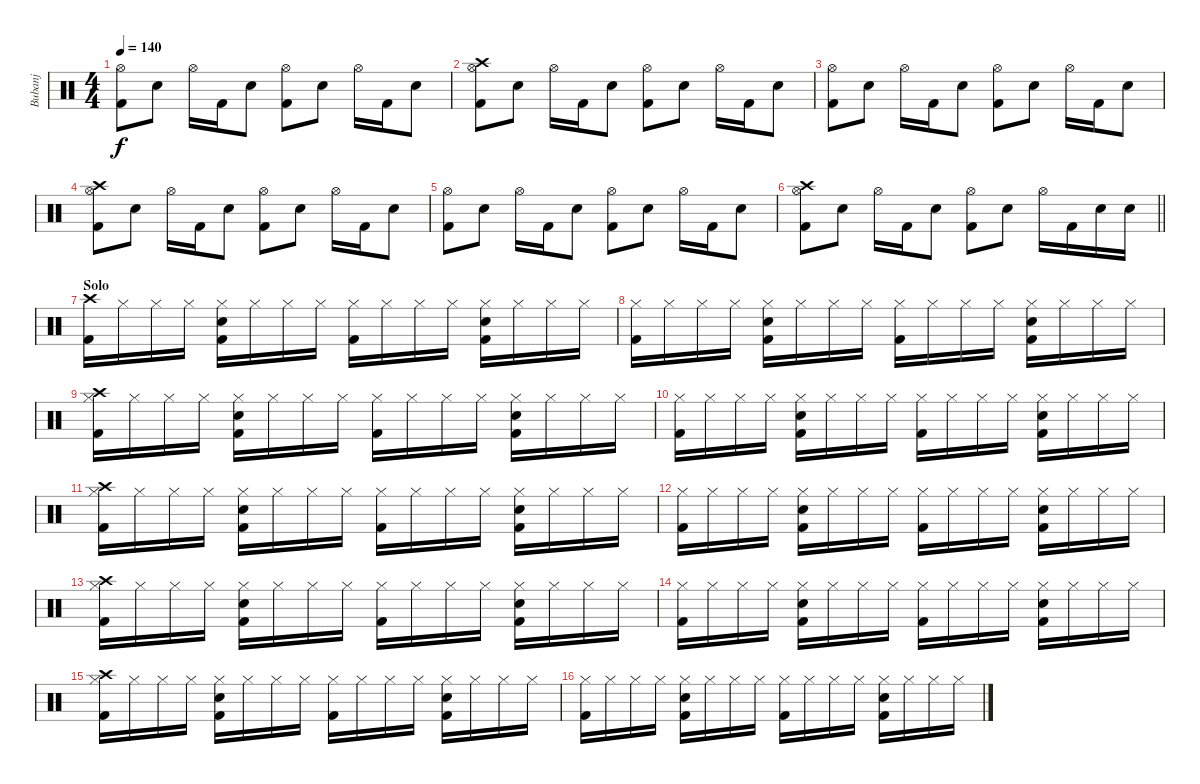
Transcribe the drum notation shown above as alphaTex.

\track ("Bubanj" "Bubanj") {instrument percussion}
\staff {score}
\articulation defaults
\ts (4 4)
\tempo 140
\clef neutral
\ks c
("Kick (hit) 2" "Hi-Hat (open)").8{dy f} "Snare (hit) 2".8 "Hi-Hat (open)".16 "Kick (hit) 2".16 "Snare (hit) 2".8 ("Kick (hit) 2" "Hi-Hat (open)").8 "Snare (hit) 2".8 "Hi-Hat (open)".16 "Kick (hit) 2".16 "Snare (hit) 2".8 |
("Kick (hit) 2" "Hi-Hat (open)" "Crash high (hit)").8 "Snare (hit) 2".8 "Hi-Hat (open)".16 "Kick (hit) 2".16 "Snare (hit) 2".8 ("Kick (hit) 2" "Hi-Hat (open)").8 "Snare (hit) 2".8 "Hi-Hat (open)".16 "Kick (hit) 2".16 "Snare (hit) 2".8 |
("Kick (hit) 2" "Hi-Hat (open)").8 "Snare (hit) 2".8 "Hi-Hat (open)".16 "Kick (hit) 2".16 "Snare (hit) 2".8 ("Kick (hit) 2" "Hi-Hat (open)").8 "Snare (hit) 2".8 "Hi-Hat (open)".16 "Kick (hit) 2".16 "Snare (hit) 2".8 |
("Kick (hit) 2" "Hi-Hat (open)" "Crash high (hit)").8 "Snare (hit) 2".8 "Hi-Hat (open)".16 "Kick (hit) 2".16 "Snare (hit) 2".8 ("Kick (hit) 2" "Hi-Hat (open)").8 "Snare (hit) 2".8 "Hi-Hat (open)".16 "Kick (hit) 2".16 "Snare (hit) 2".8 |
("Kick (hit) 2" "Hi-Hat (open)").8 "Snare (hit) 2".8 "Hi-Hat (open)".16 "Kick (hit) 2".16 "Snare (hit) 2".8 ("Kick (hit) 2" "Hi-Hat (open)").8 "Snare (hit) 2".8 "Hi-Hat (open)".16 "Kick (hit) 2".16 "Snare (hit) 2".8 |
\barLineRight lightlight
("Kick (hit) 2" "Hi-Hat (open)" "Crash high (hit)").8 "Snare (hit) 2".8 "Hi-Hat (open)".16 "Kick (hit) 2".16 "Snare (hit) 2".8 ("Kick (hit) 2" "Hi-Hat (open)").8 "Snare (hit) 2".8 "Hi-Hat (open)".16 "Kick (hit) 2".16 "Snare (hit) 2".16 "Snare (hit) 2".16 |
\section ("" "Solo")
("Kick (hit) 2" "Crash high (hit)").16 "Hi-Hat (closed)".16 "Hi-Hat (closed)".16 "Hi-Hat (closed)".16 ("Kick (hit) 2" "Snare (hit) 2" "Hi-Hat (closed)").16 "Hi-Hat (closed)".16 "Hi-Hat (closed)".16 "Hi-Hat (closed)".16 ("Kick (hit) 2" "Hi-Hat (closed)").16 "Hi-Hat (closed)".16 "Hi-Hat (closed)".16 "Hi-Hat (closed)".16 ("Kick (hit) 2" "Snare (hit) 2" "Hi-Hat (closed)").16 "Hi-Hat (closed)".16 "Hi-Hat (closed)".16 "Hi-Hat (closed)".16 |
("Kick (hit) 2" "Hi-Hat (closed)").16 "Hi-Hat (closed)".16 "Hi-Hat (closed)".16 "Hi-Hat (closed)".16 ("Kick (hit) 2" "Snare (hit) 2" "Hi-Hat (closed)").16 "Hi-Hat (closed)".16 "Hi-Hat (closed)".16 "Hi-Hat (closed)".16 ("Kick (hit) 2" "Hi-Hat (closed)").16 "Hi-Hat (closed)".16 "Hi-Hat (closed)".16 "Hi-Hat (closed)".16 ("Kick (hit) 2" "Snare (hit) 2" "Hi-Hat (closed)").16 "Hi-Hat (closed)".16 "Hi-Hat (closed)".16 "Hi-Hat (closed)".16 |
("Kick (hit) 2" "Hi-Hat (closed)" "Crash high (hit)").16 "Hi-Hat (closed)".16 "Hi-Hat (closed)".16 "Hi-Hat (closed)".16 ("Kick (hit) 2" "Snare (hit) 2" "Hi-Hat (closed)").16 "Hi-Hat (closed)".16 "Hi-Hat (closed)".16 "Hi-Hat (closed)".16 ("Kick (hit) 2" "Hi-Hat (closed)").16 "Hi-Hat (closed)".16 "Hi-Hat (closed)".16 "Hi-Hat (closed)".16 ("Kick (hit) 2" "Snare (hit) 2" "Hi-Hat (closed)").16 "Hi-Hat (closed)".16 "Hi-Hat (closed)".16 "Hi-Hat (closed)".16 |
("Kick (hit) 2" "Hi-Hat (closed)").16 "Hi-Hat (closed)".16 "Hi-Hat (closed)".16 "Hi-Hat (closed)".16 ("Kick (hit) 2" "Snare (hit) 2" "Hi-Hat (closed)").16 "Hi-Hat (closed)".16 "Hi-Hat (closed)".16 "Hi-Hat (closed)".16 ("Kick (hit) 2" "Hi-Hat (closed)").16 "Hi-Hat (closed)".16 "Hi-Hat (closed)".16 "Hi-Hat (closed)".16 ("Kick (hit) 2" "Snare (hit) 2" "Hi-Hat (closed)").16 "Hi-Hat (closed)".16 "Hi-Hat (closed)".16 "Hi-Hat (closed)".16 |
("Kick (hit) 2" "Hi-Hat (closed)" "Crash high (hit)").16 "Hi-Hat (closed)".16 "Hi-Hat (closed)".16 "Hi-Hat (closed)".16 ("Kick (hit) 2" "Snare (hit) 2" "Hi-Hat (closed)").16 "Hi-Hat (closed)".16 "Hi-Hat (closed)".16 "Hi-Hat (closed)".16 ("Kick (hit) 2" "Hi-Hat (closed)").16 "Hi-Hat (closed)".16 "Hi-Hat (closed)".16 "Hi-Hat (closed)".16 ("Kick (hit) 2" "Snare (hit) 2" "Hi-Hat (closed)").16 "Hi-Hat (closed)".16 "Hi-Hat (closed)".16 "Hi-Hat (closed)".16 |
("Kick (hit) 2" "Hi-Hat (closed)").16 "Hi-Hat (closed)".16 "Hi-Hat (closed)".16 "Hi-Hat (closed)".16 ("Kick (hit) 2" "Snare (hit) 2" "Hi-Hat (closed)").16 "Hi-Hat (closed)".16 "Hi-Hat (closed)".16 "Hi-Hat (closed)".16 ("Kick (hit) 2" "Hi-Hat (closed)").16 "Hi-Hat (closed)".16 "Hi-Hat (closed)".16 "Hi-Hat (closed)".16 ("Kick (hit) 2" "Snare (hit) 2" "Hi-Hat (closed)").16 "Hi-Hat (closed)".16 "Hi-Hat (closed)".16 "Hi-Hat (closed)".16 |
("Kick (hit) 2" "Hi-Hat (closed)" "Crash high (hit)").16 "Hi-Hat (closed)".16 "Hi-Hat (closed)".16 "Hi-Hat (closed)".16 ("Kick (hit) 2" "Snare (hit) 2" "Hi-Hat (closed)").16 "Hi-Hat (closed)".16 "Hi-Hat (closed)".16 "Hi-Hat (closed)".16 ("Kick (hit) 2" "Hi-Hat (closed)").16 "Hi-Hat (closed)".16 "Hi-Hat (closed)".16 "Hi-Hat (closed)".16 ("Kick (hit) 2" "Snare (hit) 2" "Hi-Hat (closed)").16 "Hi-Hat (closed)".16 "Hi-Hat (closed)".16 "Hi-Hat (closed)".16 |
("Kick (hit) 2" "Hi-Hat (closed)").16 "Hi-Hat (closed)".16 "Hi-Hat (closed)".16 "Hi-Hat (closed)".16 ("Kick (hit) 2" "Snare (hit) 2" "Hi-Hat (closed)").16 "Hi-Hat (closed)".16 "Hi-Hat (closed)".16 "Hi-Hat (closed)".16 ("Kick (hit) 2" "Hi-Hat (closed)").16 "Hi-Hat (closed)".16 "Hi-Hat (closed)".16 "Hi-Hat (closed)".16 ("Kick (hit) 2" "Snare (hit) 2" "Hi-Hat (closed)").16 "Hi-Hat (closed)".16 "Hi-Hat (closed)".16 "Hi-Hat (closed)".16 |
("Kick (hit) 2" "Hi-Hat (closed)" "Crash high (hit)").16 "Hi-Hat (closed)".16 "Hi-Hat (closed)".16 "Hi-Hat (closed)".16 ("Kick (hit) 2" "Snare (hit) 2" "Hi-Hat (closed)").16 "Hi-Hat (closed)".16 "Hi-Hat (closed)".16 "Hi-Hat (closed)".16 ("Kick (hit) 2" "Hi-Hat (closed)").16 "Hi-Hat (closed)".16 "Hi-Hat (closed)".16 "Hi-Hat (closed)".16 ("Kick (hit) 2" "Snare (hit) 2" "Hi-Hat (closed)").16 "Hi-Hat (closed)".16 "Hi-Hat (closed)".16 "Hi-Hat (closed)".16 |
("Kick (hit) 2" "Hi-Hat (closed)").16 "Hi-Hat (closed)".16 "Hi-Hat (closed)".16 "Hi-Hat (closed)".16 ("Kick (hit) 2" "Snare (hit) 2" "Hi-Hat (closed)").16 "Hi-Hat (closed)".16 "Hi-Hat (closed)".16 "Hi-Hat (closed)".16 ("Kick (hit) 2" "Hi-Hat (closed)").16 "Hi-Hat (closed)".16 "Hi-Hat (closed)".16 "Hi-Hat (closed)".16 ("Kick (hit) 2" "Snare (hit) 2" "Hi-Hat (closed)").16 "Hi-Hat (closed)".16 "Hi-Hat (closed)".16 "Hi-Hat (closed)".16
